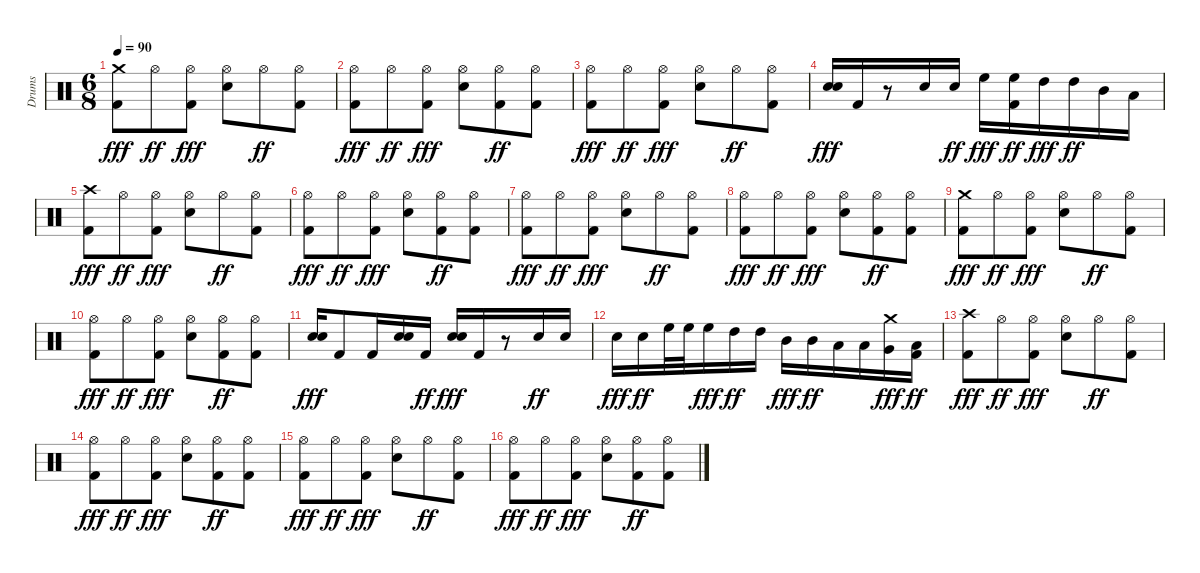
\track ("Drums" "Drums") {instrument percussion}
\staff {score}
\articulation defaults
\ts (6 8)
\tempo 90
\clef neutral
\ks c
("Kick (hit) 2" "Crash medium (hit)").8{dy fff} "Hi-Hat (open)".8{dy ff} ("Hi-Hat (open)" "Kick (hit) 2").8{dy fff} ("Hi-Hat (open)" "Snare (hit) 2").8 "Hi-Hat (open)".8{dy ff} ("Hi-Hat (open)" "Kick (hit) 2").8 |
("Hi-Hat (open)" "Kick (hit) 2").8{dy fff} "Hi-Hat (open)".8{dy ff} ("Hi-Hat (open)" "Kick (hit) 2").8{dy fff} ("Hi-Hat (open)" "Snare (hit) 2").8 ("Hi-Hat (open)" "Kick (hit) 2").8{dy ff} ("Hi-Hat (open)" "Kick (hit) 2").8 |
("Hi-Hat (open)" "Kick (hit) 2").8{dy fff} "Hi-Hat (open)".8{dy ff} ("Hi-Hat (open)" "Kick (hit) 2").8{dy fff} ("Hi-Hat (open)" "Snare (hit) 2").8 "Hi-Hat (open)".8{dy ff} ("Hi-Hat (open)" "Kick (hit) 2").8 |
("Snare (hit) 2" "Snare (hit) 2").16{dy fff} "Kick (hit) 2".16 r.8 "Snare (hit) 2".16 "Snare (hit) 2".16{dy ff} "High Floor Tom (hit)".16{dy fff} ("High Floor Tom (hit)" "Kick (hit) 2").16{dy ff} "High Tom (hit)".16{dy fff} "High Tom (hit)".16{dy ff} "Mid Tom (hit)".16 "Low Tom (hit)".16 |
("Kick (hit) 2" "Crash high (hit)").8{dy fff} "Hi-Hat (open)".8{dy ff} ("Hi-Hat (open)" "Kick (hit) 2").8{dy fff} ("Hi-Hat (open)" "Snare (hit) 2").8 "Hi-Hat (open)".8{dy ff} ("Hi-Hat (open)" "Kick (hit) 2").8 |
("Hi-Hat (open)" "Kick (hit) 2").8{dy fff} "Hi-Hat (open)".8{dy ff} ("Hi-Hat (open)" "Kick (hit) 2").8{dy fff} ("Hi-Hat (open)" "Snare (hit) 2").8 ("Hi-Hat (open)" "Kick (hit) 2").8{dy ff} ("Hi-Hat (open)" "Kick (hit) 2").8 |
("Hi-Hat (open)" "Kick (hit) 2").8{dy fff} "Hi-Hat (open)".8{dy ff} ("Hi-Hat (open)" "Kick (hit) 2").8{dy fff} ("Hi-Hat (open)" "Snare (hit) 2").8 "Hi-Hat (open)".8{dy ff} ("Hi-Hat (open)" "Kick (hit) 2").8 |
("Hi-Hat (open)" "Kick (hit) 2").8{dy fff} "Hi-Hat (open)".8{dy ff} ("Hi-Hat (open)" "Kick (hit) 2").8{dy fff} ("Hi-Hat (open)" "Snare (hit) 2").8 ("Hi-Hat (open)" "Kick (hit) 2").8{dy ff} ("Hi-Hat (open)" "Kick (hit) 2").8 |
("Kick (hit) 2" "Crash medium (hit)").8{dy fff} "Hi-Hat (open)".8{dy ff} ("Hi-Hat (open)" "Kick (hit) 2").8{dy fff} ("Hi-Hat (open)" "Snare (hit) 2").8 "Hi-Hat (open)".8{dy ff} ("Hi-Hat (open)" "Kick (hit) 2").8 |
("Hi-Hat (open)" "Kick (hit) 2").8{dy fff} "Hi-Hat (open)".8{dy ff} ("Hi-Hat (open)" "Kick (hit) 2").8{dy fff} ("Hi-Hat (open)" "Snare (hit) 2").8 ("Hi-Hat (open)" "Kick (hit) 2").8{dy ff} ("Hi-Hat (open)" "Kick (hit) 2").8 |
("Snare (hit) 2" "Snare (hit) 2").16{dy fff} "Kick (hit) 2".8 "Kick (hit) 2".16 ("Electric Snare (hit)" "Electric Snare (hit)").16 "Kick (hit) 2".16{dy ff} ("Electric Snare (hit)" "Electric Snare (hit)").16{dy fff} "Kick (hit) 2".16 r.8 "Electric Snare (hit)".16{dy ff} "Electric Snare (hit)".16 |
"Snare (hit) 2".16{dy fff} "Electric Snare (hit)".16{dy ff} "High Floor Tom (hit)".32 "High Floor Tom (hit)".32 "High Floor Tom (hit)".16{dy fff} "High Tom (hit)".16{dy ff} "High Tom (hit)".16 "Mid Tom (hit)".16{dy fff} "Mid Tom (hit)".16{dy ff} "Low Tom (hit)".16 "Low Tom (hit)".16 ("Very Low Tom (hit)" "Crash medium (hit)").16{dy fff} ("Kick (hit) 2" "Low Floor Tom (hit)").16{dy ff} |
("Kick (hit) 2" "Crash high (hit)").8{dy fff} "Hi-Hat (open)".8{dy ff} ("Hi-Hat (open)" "Kick (hit) 2").8{dy fff} ("Hi-Hat (open)" "Snare (hit) 2").8 "Hi-Hat (open)".8{dy ff} ("Hi-Hat (open)" "Kick (hit) 2").8 |
("Hi-Hat (open)" "Kick (hit) 2").8{dy fff} "Hi-Hat (open)".8{dy ff} ("Hi-Hat (open)" "Kick (hit) 2").8{dy fff} ("Hi-Hat (open)" "Snare (hit) 2").8 ("Hi-Hat (open)" "Kick (hit) 2").8{dy ff} ("Hi-Hat (open)" "Kick (hit) 2").8 |
("Hi-Hat (open)" "Kick (hit) 2").8{dy fff} "Hi-Hat (open)".8{dy ff} ("Hi-Hat (open)" "Kick (hit) 2").8{dy fff} ("Hi-Hat (open)" "Snare (hit) 2").8 "Hi-Hat (open)".8{dy ff} ("Hi-Hat (open)" "Kick (hit) 2").8 |
("Hi-Hat (open)" "Kick (hit) 2").8{dy fff} "Hi-Hat (open)".8{dy ff} ("Hi-Hat (open)" "Kick (hit) 2").8{dy fff} ("Hi-Hat (open)" "Snare (hit) 2").8 ("Hi-Hat (open)" "Kick (hit) 2").8{dy ff} ("Hi-Hat (open)" "Kick (hit) 2").8
